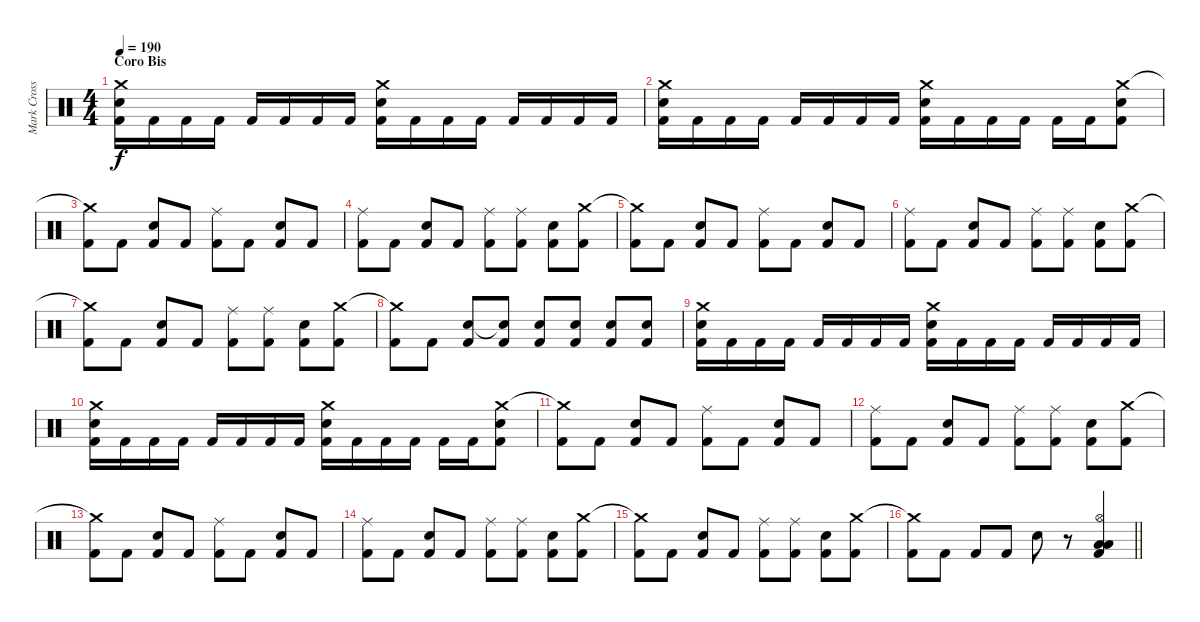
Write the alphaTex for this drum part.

\track ("Mark Cross" "Mark Cross") {instrument percussion}
\staff {score}
\articulation defaults
\ts (4 4)
\section ("" "Coro Bis")
\tempo 190
\clef neutral
\ks c
("Crash medium (hit)" "Electric Snare (hit)" "Kick (hit) 2").16{dy f} "Kick (hit) 2".16 "Kick (hit) 2".16 "Kick (hit) 2".16 "Kick (hit) 2".16 "Kick (hit) 2".16 "Kick (hit) 2".16 "Kick (hit) 2".16 ("Crash medium (hit)" "Electric Snare (hit)" "Kick (hit) 2").16 "Kick (hit) 2".16 "Kick (hit) 2".16 "Kick (hit) 2".16 "Kick (hit) 2".16 "Kick (hit) 2".16 "Kick (hit) 2".16 "Kick (hit) 2".16 |
("Crash medium (hit)" "Electric Snare (hit)" "Kick (hit) 2").16 "Kick (hit) 2".16 "Kick (hit) 2".16 "Kick (hit) 2".16 "Kick (hit) 2".16 "Kick (hit) 2".16 "Kick (hit) 2".16 "Kick (hit) 2".16 ("Crash medium (hit)" "Electric Snare (hit)" "Kick (hit) 2").16 "Kick (hit) 2".16 "Kick (hit) 2".16 "Kick (hit) 2".16 "Kick (hit) 2".16 "Kick (hit) 2".16 ("Crash medium (hit)" "Electric Snare (hit)" "Kick (hit) 2").8 |
("Crash medium (hit)"{t} "Kick (hit) 2").8 "Kick (hit) 2".8 ("Electric Snare (hit)" "Kick (hit) 2").8 "Kick (hit) 2".8 ("Ride (middle)" "Kick (hit) 2").8 "Kick (hit) 2".8 ("Electric Snare (hit)" "Kick (hit) 2").8 "Kick (hit) 2".8 |
("Ride (middle)" "Kick (hit) 2").8 "Kick (hit) 2".8 ("Electric Snare (hit)" "Kick (hit) 2").8 "Kick (hit) 2".8 ("Ride (middle)" "Kick (hit) 2").8 ("Ride (middle)" "Kick (hit) 2").8 ("Electric Snare (hit)" "Kick (hit) 2").8 ("Crash medium (hit)" "Kick (hit) 2").8 |
("Crash medium (hit)"{t} "Kick (hit) 2").8 "Kick (hit) 2".8 ("Electric Snare (hit)" "Kick (hit) 2").8 "Kick (hit) 2".8 ("Ride (middle)" "Kick (hit) 2").8 "Kick (hit) 2".8 ("Electric Snare (hit)" "Kick (hit) 2").8 "Kick (hit) 2".8 |
("Ride (middle)" "Kick (hit) 2").8 "Kick (hit) 2".8 ("Electric Snare (hit)" "Kick (hit) 2").8 "Kick (hit) 2".8 ("Ride (middle)" "Kick (hit) 2").8 ("Ride (middle)" "Kick (hit) 2").8 ("Electric Snare (hit)" "Kick (hit) 2").8 ("Crash medium (hit)" "Kick (hit) 2").8 |
("Crash medium (hit)"{t} "Kick (hit) 2").8 "Kick (hit) 2".8 ("Electric Snare (hit)" "Kick (hit) 2").8 "Kick (hit) 2".8 ("Ride (middle)" "Kick (hit) 2").8 ("Ride (middle)" "Kick (hit) 2").8 ("Electric Snare (hit)" "Kick (hit) 2").8 ("Crash medium (hit)" "Kick (hit) 2").8 |
("Crash medium (hit)"{t} "Kick (hit) 2").8 "Kick (hit) 2".8 ("Electric Snare (hit)" "Kick (hit) 2").8 ("Electric Snare (hit)"{t} "Kick (hit) 2").8 ("Electric Snare (hit)" "Kick (hit) 2").8 ("Electric Snare (hit)" "Kick (hit) 2").8 ("Electric Snare (hit)" "Kick (hit) 2").8 ("Electric Snare (hit)" "Kick (hit) 2").8 |
("Crash medium (hit)" "Electric Snare (hit)" "Kick (hit) 2").16 "Kick (hit) 2".16 "Kick (hit) 2".16 "Kick (hit) 2".16 "Kick (hit) 2".16 "Kick (hit) 2".16 "Kick (hit) 2".16 "Kick (hit) 2".16 ("Crash medium (hit)" "Electric Snare (hit)" "Kick (hit) 2").16 "Kick (hit) 2".16 "Kick (hit) 2".16 "Kick (hit) 2".16 "Kick (hit) 2".16 "Kick (hit) 2".16 "Kick (hit) 2".16 "Kick (hit) 2".16 |
("Crash medium (hit)" "Electric Snare (hit)" "Kick (hit) 2").16 "Kick (hit) 2".16 "Kick (hit) 2".16 "Kick (hit) 2".16 "Kick (hit) 2".16 "Kick (hit) 2".16 "Kick (hit) 2".16 "Kick (hit) 2".16 ("Crash medium (hit)" "Electric Snare (hit)" "Kick (hit) 2").16 "Kick (hit) 2".16 "Kick (hit) 2".16 "Kick (hit) 2".16 "Kick (hit) 2".16 "Kick (hit) 2".16 ("Crash medium (hit)" "Electric Snare (hit)" "Kick (hit) 2").8 |
("Crash medium (hit)"{t} "Kick (hit) 2").8 "Kick (hit) 2".8 ("Electric Snare (hit)" "Kick (hit) 2").8 "Kick (hit) 2".8 ("Ride (middle)" "Kick (hit) 2").8 "Kick (hit) 2".8 ("Electric Snare (hit)" "Kick (hit) 2").8 "Kick (hit) 2".8 |
("Ride (middle)" "Kick (hit) 2").8 "Kick (hit) 2".8 ("Electric Snare (hit)" "Kick (hit) 2").8 "Kick (hit) 2".8 ("Ride (middle)" "Kick (hit) 2").8 ("Ride (middle)" "Kick (hit) 2").8 ("Electric Snare (hit)" "Kick (hit) 2").8 ("Crash medium (hit)" "Kick (hit) 2").8 |
("Crash medium (hit)"{t} "Kick (hit) 2").8 "Kick (hit) 2".8 ("Electric Snare (hit)" "Kick (hit) 2").8 "Kick (hit) 2".8 ("Ride (middle)" "Kick (hit) 2").8 "Kick (hit) 2".8 ("Electric Snare (hit)" "Kick (hit) 2").8 "Kick (hit) 2".8 |
("Ride (middle)" "Kick (hit) 2").8 "Kick (hit) 2".8 ("Electric Snare (hit)" "Kick (hit) 2").8 "Kick (hit) 2".8 ("Ride (middle)" "Kick (hit) 2").8 ("Ride (middle)" "Kick (hit) 2").8 ("Electric Snare (hit)" "Kick (hit) 2").8 ("Crash medium (hit)" "Kick (hit) 2").8 |
("Crash medium (hit)"{t} "Kick (hit) 2").8 "Kick (hit) 2".8 ("Electric Snare (hit)" "Kick (hit) 2").8 "Kick (hit) 2".8 ("Ride (middle)" "Kick (hit) 2").8 ("Ride (middle)" "Kick (hit) 2").8 ("Electric Snare (hit)" "Kick (hit) 2").8 ("Crash medium (hit)" "Kick (hit) 2").8 |
\barLineRight lightlight
("Crash medium (hit)"{t} "Kick (hit) 2").8 "Kick (hit) 2".8 "Kick (hit) 2".8 "Kick (hit) 2".8 "Electric Snare (hit)".8 r.8 ("Hi-Hat (open)" "Low Floor Tom (hit)" "Low Floor Tom (hit)" "Kick (hit) 2").4
